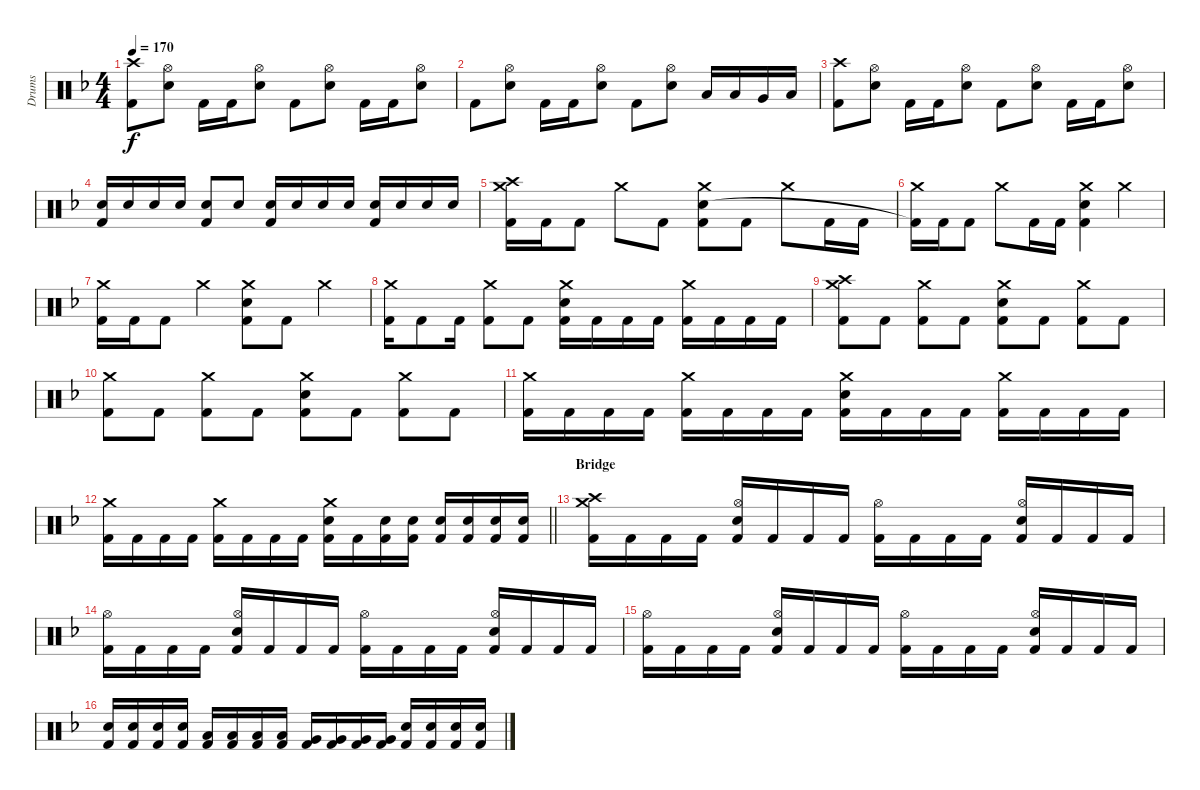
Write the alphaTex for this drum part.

\track ("Drums" "Drums") {instrument percussion}
\staff {score}
\articulation defaults
\ts (4 4)
\tempo 170
\clef neutral
\ks dminor
("Crash high (hit)" "Kick (hit) 2").8{dy f} ("Hi-Hat (open)" "Electric Snare (hit)").8 "Kick (hit) 2".16 "Kick (hit) 2".16 ("Hi-Hat (open)" "Electric Snare (hit)").8 "Kick (hit) 2".8 ("Hi-Hat (open)" "Electric Snare (hit)").8 "Kick (hit) 2".16 "Kick (hit) 2".16 ("Hi-Hat (open)" "Electric Snare (hit)").8 |
"Kick (hit) 2".8 ("Hi-Hat (open)" "Electric Snare (hit)").8 "Kick (hit) 2".16 "Kick (hit) 2".16 ("Hi-Hat (open)" "Electric Snare (hit)").8 "Kick (hit) 2".8 ("Hi-Hat (open)" "Electric Snare (hit)").8 "Low Tom (hit)".16 "Low Tom (hit)".16 "Very Low Tom (hit)".16 "Low Floor Tom (hit)".16 |
("Crash high (hit)" "Kick (hit) 2").8 ("Hi-Hat (open)" "Electric Snare (hit)").8 "Kick (hit) 2".16 "Kick (hit) 2".16 ("Hi-Hat (open)" "Electric Snare (hit)").8 "Kick (hit) 2".8 ("Hi-Hat (open)" "Electric Snare (hit)").8 "Kick (hit) 2".16 "Kick (hit) 2".16 ("Hi-Hat (open)" "Electric Snare (hit)").8 |
("Electric Snare (hit)" "Kick (hit) 2").16 "Electric Snare (hit)".16 "Electric Snare (hit)".16 "Electric Snare (hit)".16 ("Electric Snare (hit)" "Kick (hit) 2").8 "Electric Snare (hit)".8 ("Electric Snare (hit)" "Kick (hit) 2").16 "Electric Snare (hit)".16 "Electric Snare (hit)".16 "Electric Snare (hit)".16 ("Electric Snare (hit)" "Kick (hit) 2").16 "Electric Snare (hit)".16 "Electric Snare (hit)".16 "Electric Snare (hit)".16 |
("Crash medium (hit)" "Crash high (hit)" "Kick (hit) 2").16 "Kick (hit) 2".16 "Kick (hit) 2".8 "Crash medium (hit)".8 "Kick (hit) 2".8 ("Crash medium (hit)" "Electric Snare (hit)" "Kick (hit) 2").8 "Kick (hit) 2".8 "Crash medium (hit)".8 "Kick (hit) 2".16 "Kick (hit) 2".16 |
("Crash medium (hit)" "Kick (hit) 2"{t}).16 "Kick (hit) 2".16 "Kick (hit) 2".8 "Crash medium (hit)".8 "Kick (hit) 2".16 "Kick (hit) 2".16 ("Crash medium (hit)" "Electric Snare (hit)" "Kick (hit) 2").4 "Crash medium (hit)".4 |
("Crash medium (hit)" "Kick (hit) 2").16 "Kick (hit) 2".16 "Kick (hit) 2".8 "Crash medium (hit)".4 ("Crash medium (hit)" "Electric Snare (hit)" "Kick (hit) 2").8 "Kick (hit) 2".8 "Crash medium (hit)".4 |
("Crash medium (hit)" "Kick (hit) 2").16 "Kick (hit) 2".8 "Kick (hit) 2".16 ("Crash medium (hit)" "Kick (hit) 2").8 "Kick (hit) 2".8 ("Crash medium (hit)" "Electric Snare (hit)" "Kick (hit) 2").16 "Kick (hit) 2".16 "Kick (hit) 2".16 "Kick (hit) 2".16 ("Crash medium (hit)" "Kick (hit) 2").16 "Kick (hit) 2".16 "Kick (hit) 2".16 "Kick (hit) 2".16 |
("Crash medium (hit)" "Crash high (hit)" "Kick (hit) 2").8 "Kick (hit) 2".8 ("Crash medium (hit)" "Kick (hit) 2").8 "Kick (hit) 2".8 ("Crash medium (hit)" "Electric Snare (hit)" "Kick (hit) 2").8 "Kick (hit) 2".8 ("Crash medium (hit)" "Kick (hit) 2").8 "Kick (hit) 2".8 |
("Crash medium (hit)" "Kick (hit) 2").8 "Kick (hit) 2".8 ("Crash medium (hit)" "Kick (hit) 2").8 "Kick (hit) 2".8 ("Crash medium (hit)" "Electric Snare (hit)" "Kick (hit) 2").8 "Kick (hit) 2".8 ("Crash medium (hit)" "Kick (hit) 2").8 "Kick (hit) 2".8 |
("Crash medium (hit)" "Kick (hit) 2").16 "Kick (hit) 2".16 "Kick (hit) 2".16 "Kick (hit) 2".16 ("Crash medium (hit)" "Kick (hit) 2").16 "Kick (hit) 2".16 "Kick (hit) 2".16 "Kick (hit) 2".16 ("Crash medium (hit)" "Electric Snare (hit)" "Kick (hit) 2").16 "Kick (hit) 2".16 "Kick (hit) 2".16 "Kick (hit) 2".16 ("Crash medium (hit)" "Kick (hit) 2").16 "Kick (hit) 2".16 "Kick (hit) 2".16 "Kick (hit) 2".16 |
\barLineRight lightlight
("Crash medium (hit)" "Kick (hit) 2").16 "Kick (hit) 2".16 "Kick (hit) 2".16 "Kick (hit) 2".16 ("Crash medium (hit)" "Kick (hit) 2").16 "Kick (hit) 2".16 "Kick (hit) 2".16 "Kick (hit) 2".16 ("Crash medium (hit)" "Electric Snare (hit)" "Kick (hit) 2").16 "Kick (hit) 2".16 ("Electric Snare (hit)" "Kick (hit) 2").16 ("Electric Snare (hit)" "Kick (hit) 2").16 ("Electric Snare (hit)" "Kick (hit) 2").16 ("Electric Snare (hit)" "Kick (hit) 2").16 ("Electric Snare (hit)" "Kick (hit) 2").16 ("Electric Snare (hit)" "Kick (hit) 2").16 |
\section ("" "Bridge")
("Crash medium (hit)" "Crash high (hit)" "Kick (hit) 2").16 "Kick (hit) 2".16 "Kick (hit) 2".16 "Kick (hit) 2".16 ("Hi-Hat (open)" "Electric Snare (hit)" "Kick (hit) 2").16 "Kick (hit) 2".16 "Kick (hit) 2".16 "Kick (hit) 2".16 ("Hi-Hat (open)" "Kick (hit) 2").16 "Kick (hit) 2".16 "Kick (hit) 2".16 "Kick (hit) 2".16 ("Hi-Hat (open)" "Electric Snare (hit)" "Kick (hit) 2").16 "Kick (hit) 2".16 "Kick (hit) 2".16 "Kick (hit) 2".16 |
("Hi-Hat (open)" "Kick (hit) 2").16 "Kick (hit) 2".16 "Kick (hit) 2".16 "Kick (hit) 2".16 ("Hi-Hat (open)" "Electric Snare (hit)" "Kick (hit) 2").16 "Kick (hit) 2".16 "Kick (hit) 2".16 "Kick (hit) 2".16 ("Hi-Hat (open)" "Kick (hit) 2").16 "Kick (hit) 2".16 "Kick (hit) 2".16 "Kick (hit) 2".16 ("Hi-Hat (open)" "Electric Snare (hit)" "Kick (hit) 2").16 "Kick (hit) 2".16 "Kick (hit) 2".16 "Kick (hit) 2".16 |
("Hi-Hat (open)" "Kick (hit) 2").16 "Kick (hit) 2".16 "Kick (hit) 2".16 "Kick (hit) 2".16 ("Hi-Hat (open)" "Electric Snare (hit)" "Kick (hit) 2").16 "Kick (hit) 2".16 "Kick (hit) 2".16 "Kick (hit) 2".16 ("Hi-Hat (open)" "Kick (hit) 2").16 "Kick (hit) 2".16 "Kick (hit) 2".16 "Kick (hit) 2".16 ("Hi-Hat (open)" "Electric Snare (hit)" "Kick (hit) 2").16 "Kick (hit) 2".16 "Kick (hit) 2".16 "Kick (hit) 2".16 |
("Electric Snare (hit)" "Kick (hit) 2").16 ("Electric Snare (hit)" "Kick (hit) 2").16 ("Electric Snare (hit)" "Kick (hit) 2").16 ("Electric Snare (hit)" "Kick (hit) 2").16 ("Low Tom (hit)" "Kick (hit) 2").16 ("Low Tom (hit)" "Kick (hit) 2").16 ("Low Tom (hit)" "Kick (hit) 2").16 ("Low Tom (hit)" "Kick (hit) 2").16 ("Very Low Tom (hit)" "Kick (hit) 2").16 ("Very Low Tom (hit)" "Kick (hit) 2").16 ("Very Low Tom (hit)" "Kick (hit) 2").16 ("Very Low Tom (hit)" "Kick (hit) 2").16 ("Electric Snare (hit)" "Kick (hit) 2").16 ("Electric Snare (hit)" "Kick (hit) 2").16 ("Electric Snare (hit)" "Kick (hit) 2").16 ("Electric Snare (hit)" "Kick (hit) 2").16
